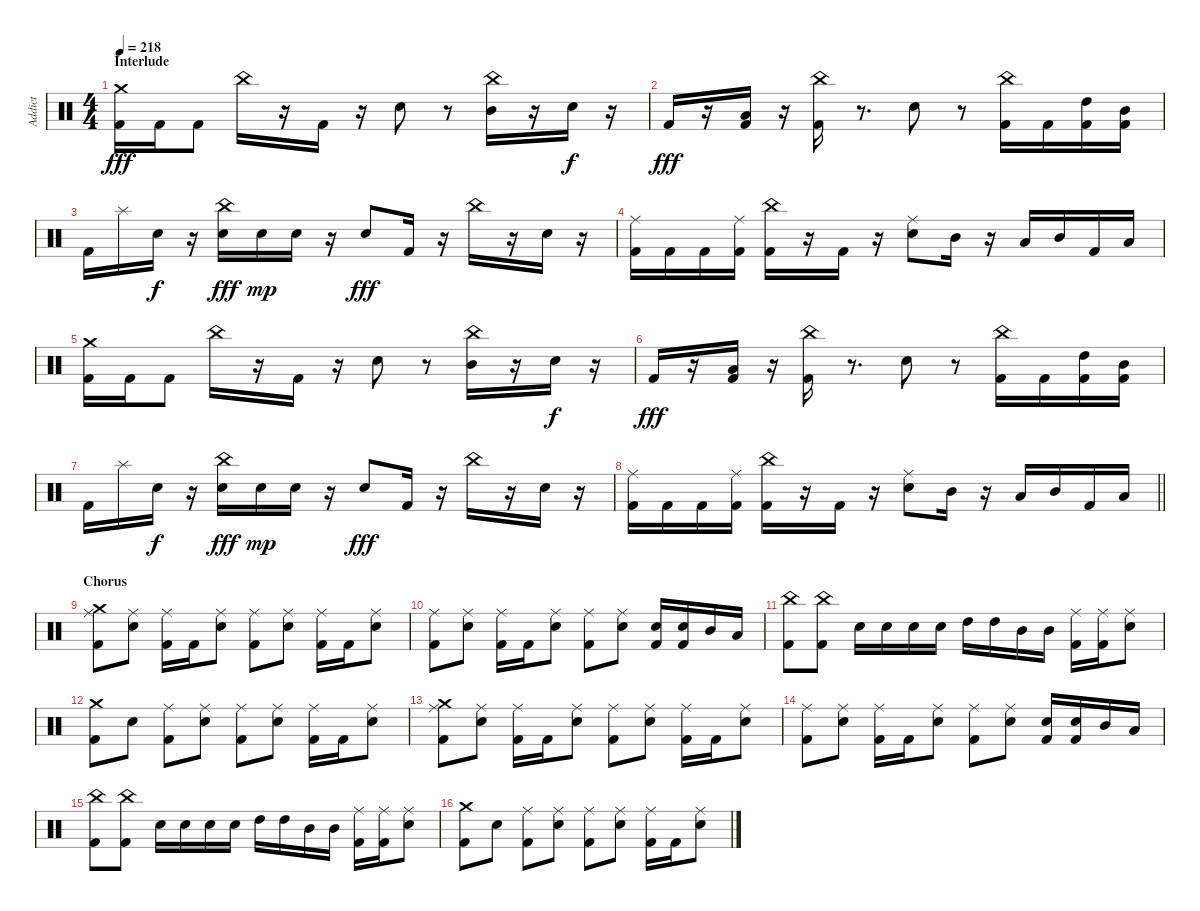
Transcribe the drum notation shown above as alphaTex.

\track ("Addict" "Addict") {instrument percussion}
\staff {score}
\articulation defaults
\ts (4 4)
\section ("" "Interlude")
\tempo 218
\clef neutral
\ks c
("Kick (hit) 2" "Crash medium (hit)").16{dy fff} "Kick (hit) 2".16 "Kick (hit) 2".8 "China (hit)".16 r.16 "Kick (hit) 2".16 r.16 "Snare (hit) 2".8 r.8 ("Mid Tom (hit)" "China (hit)").16 r.16 "Snare (hit) 2".16{dy f} r.16 |
"Kick (hit) 2".16{dy fff} r.16 ("Kick (hit) 2" "Low Tom (hit)").16 r.16 ("Kick (hit) 2" "China (hit)").16 r.8{d} "Snare (hit) 2".8 r.8 ("Kick (hit) 2" "China (hit)").16 "Kick (hit) 2".16 ("Kick (hit) 2" "High Tom (hit)").16 ("Kick (hit) 2" "Mid Tom (hit)").16 |
"Kick (hit) 2".16 "Splash (hit)".16 "Snare (hit) 2".16{dy f} r.16 ("Snare (hit) 2" "China (hit)").16{dy fff} "Snare (hit) 2".16{dy mp} "Snare (hit) 2".16 r.16 "Snare (hit) 2".8{dy fff} "Kick (hit) 2".16 r.16 "China (hit)".16 r.16 "Snare (hit) 2".16 r.16 |
("Kick (hit) 2" "Ride (middle)").16 "Kick (hit) 2".16 "Kick (hit) 2".16 ("Kick (hit) 2" "Ride (middle)").16 ("Kick (hit) 2" "China (hit)").16 r.16 "Kick (hit) 2".16 r.16 ("Snare (hit) 2" "Ride (middle)").8 "Mid Tom (hit)".16 r.16 "Low Tom (hit)".16 "Mid Tom (hit)".16 "Kick (hit) 2".16 "Low Tom (hit)".16 |
("Kick (hit) 2" "Crash medium (hit)").16 "Kick (hit) 2".16 "Kick (hit) 2".8 "China (hit)".16 r.16 "Kick (hit) 2".16 r.16 "Snare (hit) 2".8 r.8 ("Mid Tom (hit)" "China (hit)").16 r.16 "Snare (hit) 2".16{dy f} r.16 |
"Kick (hit) 2".16{dy fff} r.16 ("Kick (hit) 2" "Low Tom (hit)").16 r.16 ("Kick (hit) 2" "China (hit)").16 r.8{d} "Snare (hit) 2".8 r.8 ("Kick (hit) 2" "China (hit)").16 "Kick (hit) 2".16 ("Kick (hit) 2" "High Tom (hit)").16 ("Kick (hit) 2" "Mid Tom (hit)").16 |
"Kick (hit) 2".16 "Splash (hit)".16 "Snare (hit) 2".16{dy f} r.16 ("Snare (hit) 2" "China (hit)").16{dy fff} "Snare (hit) 2".16{dy mp} "Snare (hit) 2".16 r.16 "Snare (hit) 2".8{dy fff} "Kick (hit) 2".16 r.16 "China (hit)".16 r.16 "Snare (hit) 2".16 r.16 |
\barLineRight lightlight
("Kick (hit) 2" "Ride (middle)").16 "Kick (hit) 2".16 "Kick (hit) 2".16 ("Kick (hit) 2" "Ride (middle)").16 ("Kick (hit) 2" "China (hit)").16 r.16 "Kick (hit) 2".16 r.16 ("Snare (hit) 2" "Ride (middle)").8 "Mid Tom (hit)".16 r.16 "Low Tom (hit)".16 "Mid Tom (hit)".16 "Kick (hit) 2".16 "Low Tom (hit)".16 |
\section ("" "Chorus")
("Kick (hit) 2" "Ride (middle)" "Crash medium (hit)").8 ("Snare (hit) 2" "Ride (middle)").8 ("Kick (hit) 2" "Ride (middle)").16 "Kick (hit) 2".16 ("Snare (hit) 2" "Ride (middle)").8 ("Kick (hit) 2" "Ride (middle)").8 ("Snare (hit) 2" "Ride (middle)").8 ("Kick (hit) 2" "Ride (middle)").16 "Kick (hit) 2".16 ("Snare (hit) 2" "Ride (middle)").8 |
("Kick (hit) 2" "Ride (middle)").8 ("Snare (hit) 2" "Ride (middle)").8 ("Kick (hit) 2" "Ride (middle)").16 "Kick (hit) 2".16 ("Snare (hit) 2" "Ride (middle)").8 ("Kick (hit) 2" "Ride (middle)").8 ("Snare (hit) 2" "Ride (middle)").8 ("Kick (hit) 2" "Snare (hit) 2").16 ("Kick (hit) 2" "Snare (hit) 2").16 "Mid Tom (hit)".16 "Low Tom (hit)".16 |
("Kick (hit) 2" "China (hit)").8 ("Kick (hit) 2" "China (hit)").8 "Snare (hit) 2".16 "Snare (hit) 2".16 "Snare (hit) 2".16 "Snare (hit) 2".16 "High Tom (hit)".16 "High Tom (hit)".16 "Mid Tom (hit)".16 "Mid Tom (hit)".16 ("Kick (hit) 2" "Ride (middle)").16 ("Kick (hit) 2" "Ride (middle)").16 ("Snare (hit) 2" "Ride (middle)").8 |
("Kick (hit) 2" "Crash medium (hit)").8 "Snare (hit) 2".8 ("Kick (hit) 2" "Ride (middle)").8 ("Snare (hit) 2" "Ride (middle)").8 ("Kick (hit) 2" "Ride (middle)").8 ("Snare (hit) 2" "Ride (middle)").8 ("Kick (hit) 2" "Ride (middle)").16 "Kick (hit) 2".16 ("Snare (hit) 2" "Ride (middle)").8 |
("Kick (hit) 2" "Ride (middle)" "Crash medium (hit)").8 ("Snare (hit) 2" "Ride (middle)").8 ("Kick (hit) 2" "Ride (middle)").16 "Kick (hit) 2".16 ("Snare (hit) 2" "Ride (middle)").8 ("Kick (hit) 2" "Ride (middle)").8 ("Snare (hit) 2" "Ride (middle)").8 ("Kick (hit) 2" "Ride (middle)").16 "Kick (hit) 2".16 ("Snare (hit) 2" "Ride (middle)").8 |
("Kick (hit) 2" "Ride (middle)").8 ("Snare (hit) 2" "Ride (middle)").8 ("Kick (hit) 2" "Ride (middle)").16 "Kick (hit) 2".16 ("Snare (hit) 2" "Ride (middle)").8 ("Kick (hit) 2" "Ride (middle)").8 ("Snare (hit) 2" "Ride (middle)").8 ("Kick (hit) 2" "Snare (hit) 2").16 ("Kick (hit) 2" "Snare (hit) 2").16 "Mid Tom (hit)".16 "Low Tom (hit)".16 |
("Kick (hit) 2" "China (hit)").8 ("Kick (hit) 2" "China (hit)").8 "Snare (hit) 2".16 "Snare (hit) 2".16 "Snare (hit) 2".16 "Snare (hit) 2".16 "High Tom (hit)".16 "High Tom (hit)".16 "Mid Tom (hit)".16 "Mid Tom (hit)".16 ("Kick (hit) 2" "Ride (middle)").16 ("Kick (hit) 2" "Ride (middle)").16 ("Snare (hit) 2" "Ride (middle)").8 |
("Kick (hit) 2" "Crash medium (hit)").8 "Snare (hit) 2".8 ("Kick (hit) 2" "Ride (middle)").8 ("Snare (hit) 2" "Ride (middle)").8 ("Kick (hit) 2" "Ride (middle)").8 ("Snare (hit) 2" "Ride (middle)").8 ("Kick (hit) 2" "Ride (middle)").16 "Kick (hit) 2".16 ("Snare (hit) 2" "Ride (middle)").8
